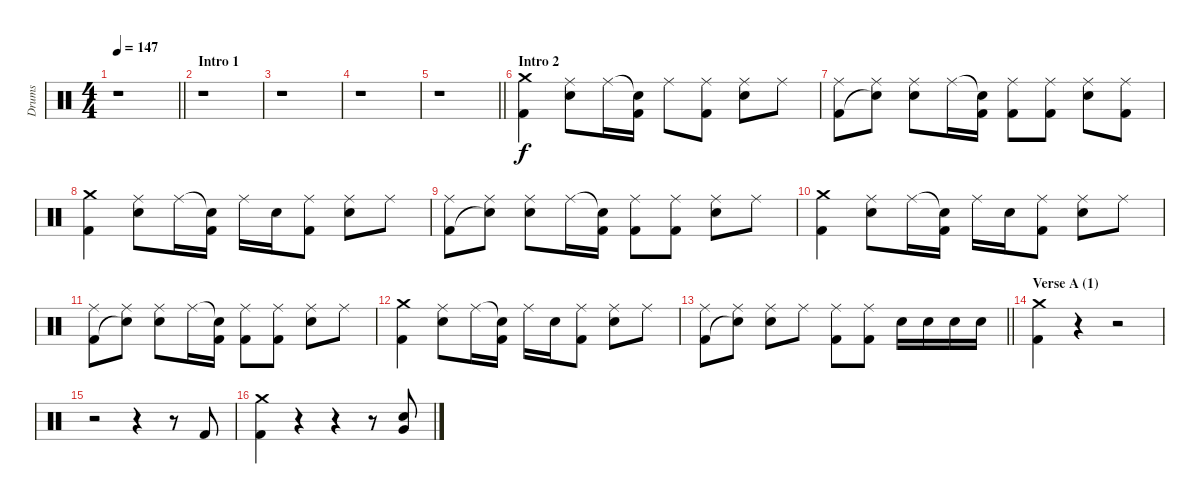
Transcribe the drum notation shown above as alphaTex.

\track ("Drums" "Drums") {instrument percussion}
\staff {score}
\articulation defaults
\ts (4 4)
\tempo 147
\clef neutral
\barLineRight lightlight
\ks aminor
r.1{dy f} |
\section ("" "Intro 1")
r.1 |
r.1 |
r.1 |
\barLineRight lightlight
r.1 |
\section ("" "Intro 2")
("Crash medium (hit)" "Kick (hit) 2").4 ("Ride (middle)" "Electric Snare (hit)").8 "Ride (middle)".16 ("Snare (hit)"{t} "Kick (hit) 2").16 "Ride (middle)".8 ("Ride (middle)" "Kick (hit) 2").8 ("Ride (middle)" "Electric Snare (hit)").8 "Ride (middle)".8 |
("Ride (middle)" "Kick (hit) 2").8 ("Ride (middle)" "Snare (hit)"{t}).8 ("Ride (middle)" "Electric Snare (hit)").8 "Ride (middle)".16 ("Snare (hit)"{t} "Kick (hit) 2").16 ("Ride (middle)" "Kick (hit) 2").8 ("Ride (middle)" "Kick (hit) 2").8 ("Ride (middle)" "Electric Snare (hit)").8 ("Ride (middle)" "Kick (hit) 2").8 |
("Crash medium (hit)" "Kick (hit) 2").4 ("Ride (middle)" "Electric Snare (hit)").8 "Ride (middle)".16 ("Snare (hit)"{t} "Kick (hit) 2").16 "Ride (middle)".16 "Electric Snare (hit)".16 ("Ride (middle)" "Kick (hit) 2").8 ("Ride (middle)" "Electric Snare (hit)").8 "Ride (middle)".8 |
("Ride (middle)" "Kick (hit) 2").8 ("Ride (middle)" "Snare (hit)"{t}).8 ("Ride (middle)" "Electric Snare (hit)").8 "Ride (middle)".16 ("Snare (hit)"{t} "Kick (hit) 2").16 ("Ride (middle)" "Kick (hit) 2").8 ("Ride (middle)" "Kick (hit) 2").8 ("Ride (middle)" "Electric Snare (hit)").8 "Ride (middle)".8 |
("Crash medium (hit)" "Kick (hit) 2").4 ("Ride (middle)" "Electric Snare (hit)").8 "Ride (middle)".16 ("Snare (hit)"{t} "Kick (hit) 2").16 "Ride (middle)".16 "Electric Snare (hit)".16 ("Ride (middle)" "Kick (hit) 2").8 ("Ride (middle)" "Electric Snare (hit)").8 "Ride (middle)".8 |
("Ride (middle)" "Kick (hit) 2").8 ("Ride (middle)" "Snare (hit)"{t}).8 ("Ride (middle)" "Electric Snare (hit)").8 "Ride (middle)".16 ("Snare (hit)"{t} "Kick (hit) 2").16 ("Ride (middle)" "Kick (hit) 2").8 ("Ride (middle)" "Kick (hit) 2").8 ("Ride (middle)" "Electric Snare (hit)").8 "Ride (middle)".8 |
("Crash medium (hit)" "Kick (hit) 2").4 ("Ride (middle)" "Electric Snare (hit)").8 "Ride (middle)".16 ("Snare (hit)"{t} "Kick (hit) 2").16 "Ride (middle)".16 "Electric Snare (hit)".16 ("Ride (middle)" "Kick (hit) 2").8 ("Ride (middle)" "Electric Snare (hit)").8 "Ride (middle)".8 |
\barLineRight lightlight
("Ride (middle)" "Kick (hit) 2").8 ("Ride (middle)" "Snare (hit)"{t}).8 ("Ride (middle)" "Electric Snare (hit)").8 "Ride (middle)".8 ("Ride (middle)" "Kick (hit) 2").8 ("Ride (middle)" "Kick (hit) 2").8 "Electric Snare (hit)".16 "Electric Snare (hit)".16 "Electric Snare (hit)".16 "Electric Snare (hit)".16 |
\section ("" "Verse A (1)")
("Crash medium (hit)" "Kick (hit) 2").4 r.4 r.2 |
r.2 r.4 r.8 "Kick (hit) 2".8 |
("Crash medium (hit)" "Kick (hit) 2").4 r.4 r.4 r.8 ("Electric Snare (hit)" "Very Low Tom (hit)").8
